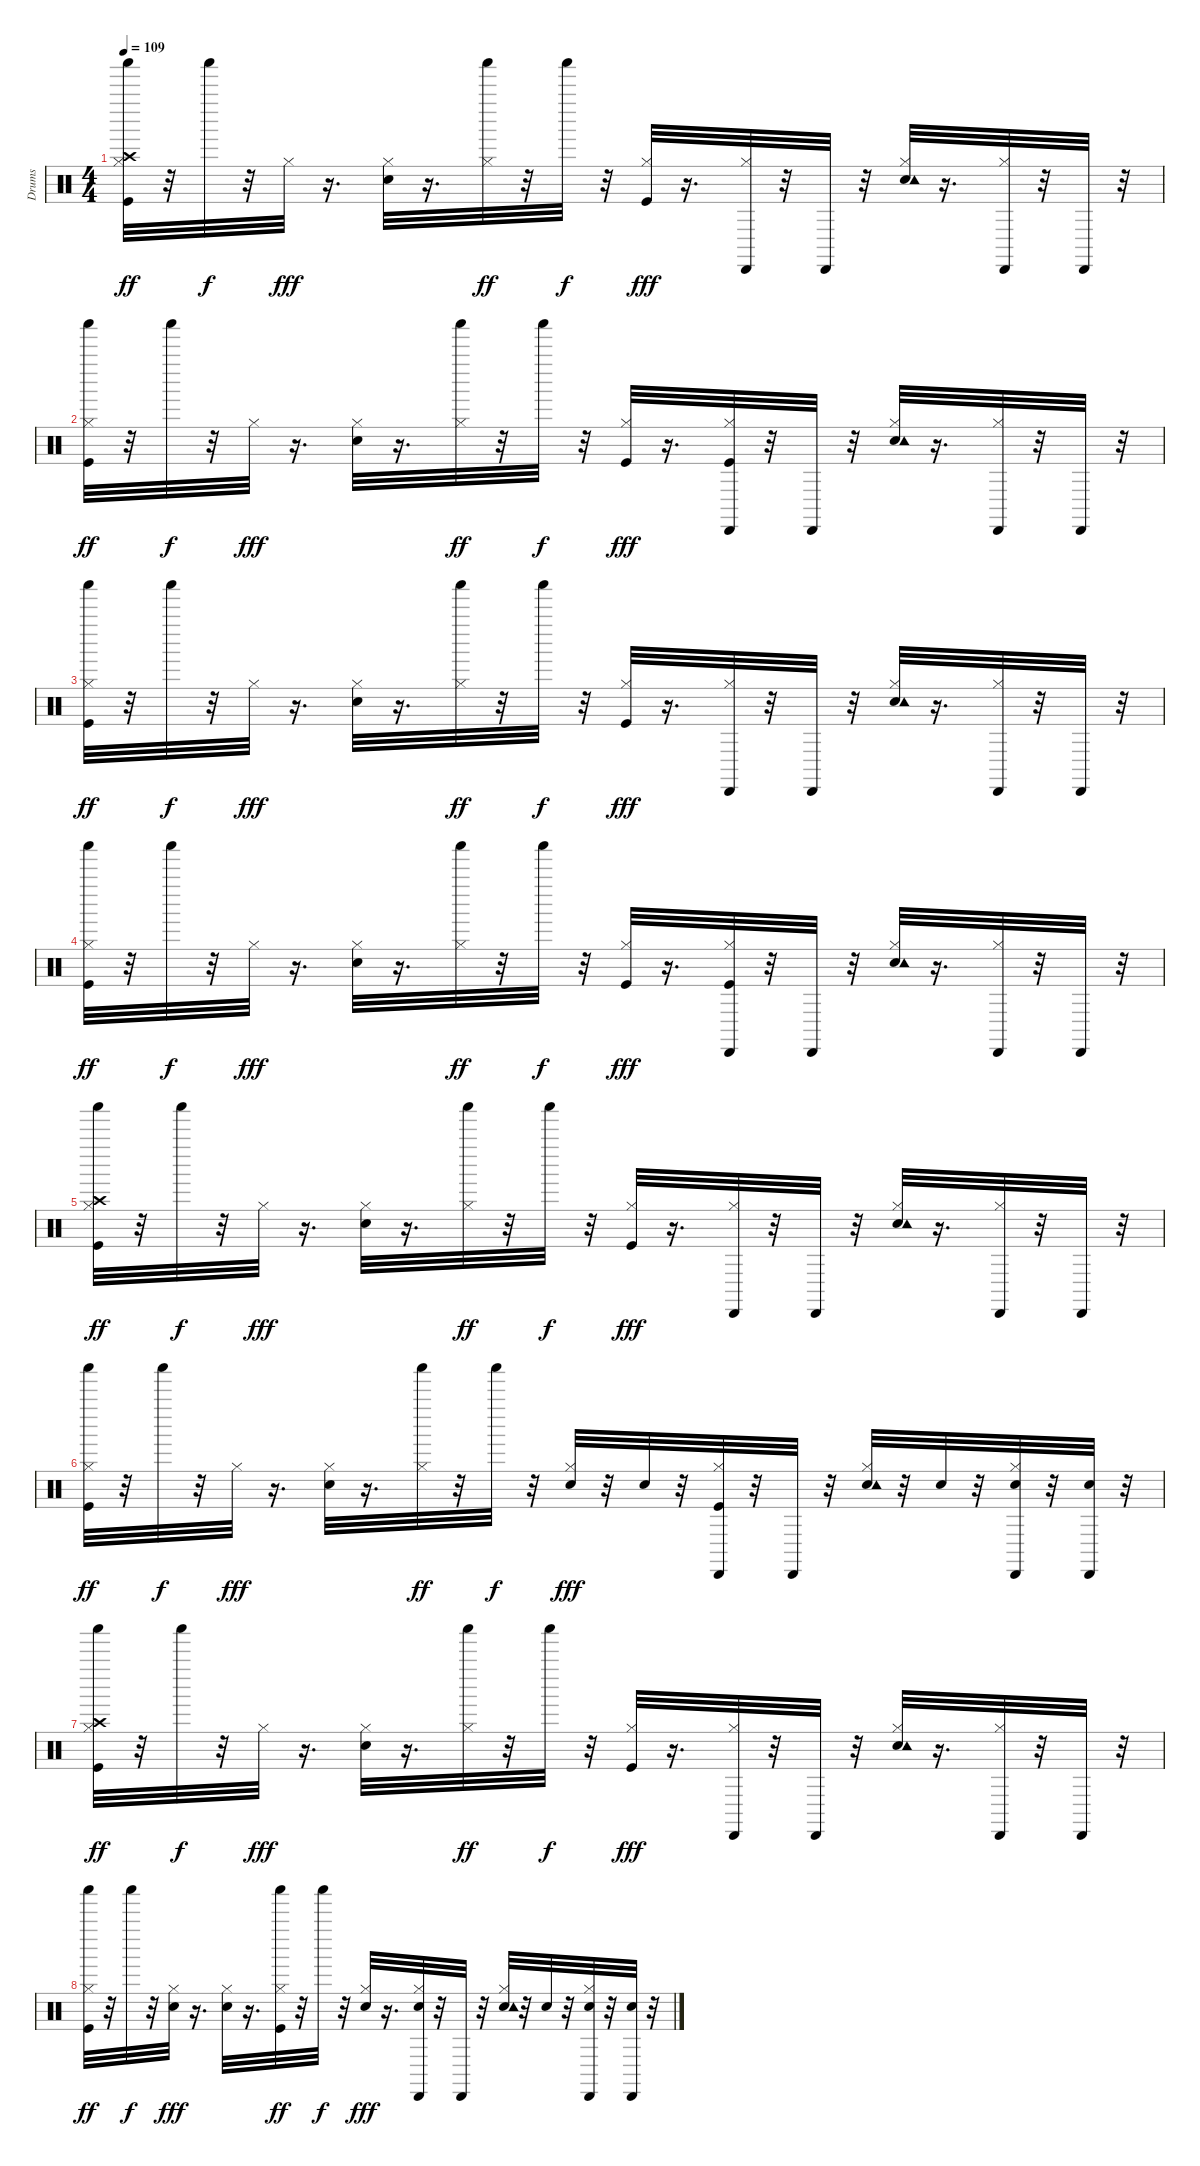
\track ("Drums               " "Drums     ") {instrument percussion}
\staff {score}
\articulation defaults
\ts (4 4)
\tempo 109
\clef neutral
\ks c
("Kick (hit)" "Hi-Hat (closed)" "Crash high (hit)" "Shaker (hit)").32{dy ff} r.32 "Shaker (hit)".32{dy f} r.32 "Hi-Hat (closed)".32{dy fff} r.16{d} ("Electric Snare (hit)" "Hi-Hat (closed)").32 r.16{d} ("Hi-Hat (closed)" "Shaker (hit)").32{dy ff} r.32 "Shaker (hit)".32{dy f} r.32 ("Kick (hit)" "Hi-Hat (closed)").32{dy fff} r.16{d} ("Hi-Hat (closed)" "Cabasa (hit)").32 r.32 "Cabasa (hit)".32 r.32 ("Electric Snare (hit)" "Hi-Hat (closed)" "Tambourine (hit)").32 r.16{d} ("Hi-Hat (closed)" "Cabasa (hit)").32 r.32 "Cabasa (hit)".32 r.32 |
("Kick (hit)" "Hi-Hat (closed)" "Shaker (hit)").32{dy ff} r.32 "Shaker (hit)".32{dy f} r.32 "Hi-Hat (closed)".32{dy fff} r.16{d} ("Electric Snare (hit)" "Hi-Hat (closed)").32 r.16{d} ("Hi-Hat (closed)" "Shaker (hit)").32{dy ff} r.32 "Shaker (hit)".32{dy f} r.32 ("Kick (hit)" "Hi-Hat (closed)").32{dy fff} r.16{d} ("Kick (hit)" "Hi-Hat (closed)" "Cabasa (hit)").32 r.32 "Cabasa (hit)".32 r.32 ("Electric Snare (hit)" "Hi-Hat (closed)" "Tambourine (hit)").32 r.16{d} ("Hi-Hat (closed)" "Cabasa (hit)").32 r.32 "Cabasa (hit)".32 r.32 |
("Kick (hit)" "Hi-Hat (closed)" "Shaker (hit)").32{dy ff} r.32 "Shaker (hit)".32{dy f} r.32 "Hi-Hat (closed)".32{dy fff} r.16{d} ("Electric Snare (hit)" "Hi-Hat (closed)").32 r.16{d} ("Hi-Hat (closed)" "Shaker (hit)").32{dy ff} r.32 "Shaker (hit)".32{dy f} r.32 ("Kick (hit)" "Hi-Hat (closed)").32{dy fff} r.16{d} ("Hi-Hat (closed)" "Cabasa (hit)").32 r.32 "Cabasa (hit)".32 r.32 ("Electric Snare (hit)" "Hi-Hat (closed)" "Tambourine (hit)").32 r.16{d} ("Hi-Hat (closed)" "Cabasa (hit)").32 r.32 "Cabasa (hit)".32 r.32 |
("Kick (hit)" "Hi-Hat (closed)" "Shaker (hit)").32{dy ff} r.32 "Shaker (hit)".32{dy f} r.32 "Hi-Hat (closed)".32{dy fff} r.16{d} ("Electric Snare (hit)" "Hi-Hat (closed)").32 r.16{d} ("Hi-Hat (closed)" "Shaker (hit)").32{dy ff} r.32 "Shaker (hit)".32{dy f} r.32 ("Kick (hit)" "Hi-Hat (closed)").32{dy fff} r.16{d} ("Kick (hit)" "Hi-Hat (closed)" "Cabasa (hit)").32 r.32 "Cabasa (hit)".32 r.32 ("Electric Snare (hit)" "Hi-Hat (closed)" "Tambourine (hit)").32 r.16{d} ("Hi-Hat (closed)" "Cabasa (hit)").32 r.32 "Cabasa (hit)".32 r.32 |
("Kick (hit)" "Hi-Hat (closed)" "Crash high (hit)" "Shaker (hit)").32{dy ff} r.32 "Shaker (hit)".32{dy f} r.32 "Hi-Hat (closed)".32{dy fff} r.16{d} ("Electric Snare (hit)" "Hi-Hat (closed)").32 r.16{d} ("Hi-Hat (closed)" "Shaker (hit)").32{dy ff} r.32 "Shaker (hit)".32{dy f} r.32 ("Kick (hit)" "Hi-Hat (closed)").32{dy fff} r.16{d} ("Hi-Hat (closed)" "Cabasa (hit)").32 r.32 "Cabasa (hit)".32 r.32 ("Electric Snare (hit)" "Hi-Hat (closed)" "Tambourine (hit)").32 r.16{d} ("Hi-Hat (closed)" "Cabasa (hit)").32 r.32 "Cabasa (hit)".32 r.32 |
("Kick (hit)" "Hi-Hat (closed)" "Shaker (hit)").32{dy ff} r.32 "Shaker (hit)".32{dy f} r.32 "Hi-Hat (closed)".32{dy fff} r.16{d} ("Electric Snare (hit)" "Hi-Hat (closed)").32 r.16{d} ("Hi-Hat (closed)" "Shaker (hit)").32{dy ff} r.32 "Shaker (hit)".32{dy f} r.32 ("Electric Snare (hit)" "Hi-Hat (closed)").32{dy fff} r.32 "Electric Snare (hit)".32 r.32 ("Kick (hit)" "Hi-Hat (closed)" "Cabasa (hit)").32 r.32 "Cabasa (hit)".32 r.32 ("Electric Snare (hit)" "Hi-Hat (closed)" "Tambourine (hit)").32 r.32 "Electric Snare (hit)".32 r.32 ("Electric Snare (hit)" "Hi-Hat (closed)" "Cabasa (hit)").32 r.32 ("Electric Snare (hit)" "Cabasa (hit)").32 r.32 |
("Kick (hit)" "Hi-Hat (closed)" "Crash high (hit)" "Shaker (hit)").32{dy ff} r.32 "Shaker (hit)".32{dy f} r.32 "Hi-Hat (closed)".32{dy fff} r.16{d} ("Electric Snare (hit)" "Hi-Hat (closed)").32 r.16{d} ("Hi-Hat (closed)" "Shaker (hit)").32{dy ff} r.32 "Shaker (hit)".32{dy f} r.32 ("Kick (hit)" "Hi-Hat (closed)").32{dy fff} r.16{d} ("Hi-Hat (closed)" "Cabasa (hit)").32 r.32 "Cabasa (hit)".32 r.32 ("Electric Snare (hit)" "Hi-Hat (closed)" "Tambourine (hit)").32 r.16{d} ("Hi-Hat (closed)" "Cabasa (hit)").32 r.32 "Cabasa (hit)".32 r.32 |
("Kick (hit)" "Hi-Hat (closed)" "Shaker (hit)").32{dy ff} r.32 "Shaker (hit)".32{dy f} r.32 ("Electric Snare (hit)" "Hi-Hat (closed)").32{dy fff} r.16{d} ("Electric Snare (hit)" "Hi-Hat (closed)").32 r.16{d} ("Kick (hit)" "Hi-Hat (closed)" "Shaker (hit)").32{dy ff} r.32 "Shaker (hit)".32{dy f} r.32 ("Electric Snare (hit)" "Hi-Hat (closed)").32{dy fff} r.16{d} ("Electric Snare (hit)" "Hi-Hat (closed)" "Cabasa (hit)").32 r.32 "Cabasa (hit)".32 r.32 ("Electric Snare (hit)" "Hi-Hat (closed)" "Tambourine (hit)").32 r.32 "Electric Snare (hit)".32 r.32 ("Electric Snare (hit)" "Hi-Hat (closed)" "Cabasa (hit)").32 r.32 ("Electric Snare (hit)" "Cabasa (hit)").32 r.32
